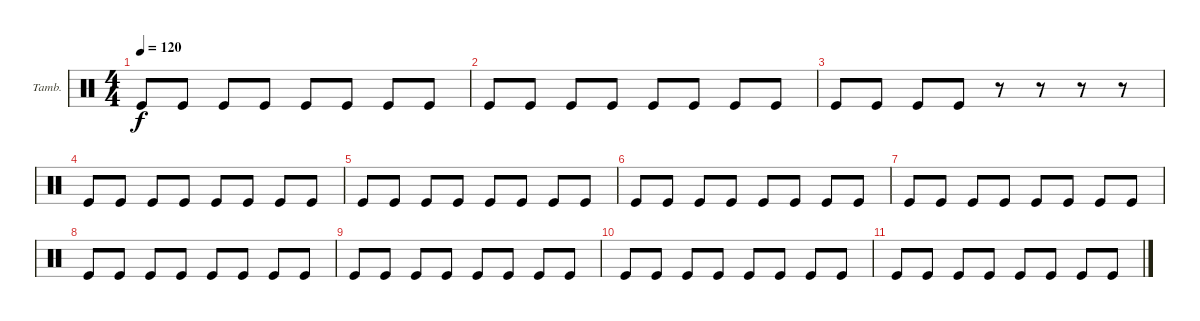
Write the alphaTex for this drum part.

\bracketExtendMode groupsimilarinstruments
\firstSystemTrackNameOrientation horizontal
\otherSystemsTrackNameOrientation horizontal
\track ("Tambourine" "Tamb.") {instrument percussion}
\staff {score}
\articulation defaults
\ts (4 4)
\tempo 120
\clef neutral
\scale
0.333333
\ks c "Kick (hit)".8{dy f} "Kick (hit)".8 "Kick (hit)".8 "Kick (hit)".8 "Kick (hit)".8 "Kick (hit)".8 "Kick (hit)".8 "Kick (hit)".8
|
\scale
0.333333 "Kick (hit)".8 "Kick (hit)".8 "Kick (hit)".8 "Kick (hit)".8 "Kick (hit)".8 "Kick (hit)".8 "Kick (hit)".8 "Kick (hit)".8 |
\scale
0.333333 "Kick (hit)".8 "Kick (hit)".8 "Kick (hit)".8 "Kick (hit)".8 r.8 r.8 r.8 r.8 |
\scale
0.333333 "Kick (hit)".8 "Kick (hit)".8 "Kick (hit)".8 "Kick (hit)".8 "Kick (hit)".8 "Kick (hit)".8 "Kick (hit)".8 "Kick (hit)".8 |
\scale
0.333333 "Kick (hit)".8 "Kick (hit)".8 "Kick (hit)".8 "Kick (hit)".8 "Kick (hit)".8 "Kick (hit)".8 "Kick (hit)".8 "Kick (hit)".8 |
\scale
0.333333 "Kick (hit)".8 "Kick (hit)".8 "Kick (hit)".8 "Kick (hit)".8 "Kick (hit)".8 "Kick (hit)".8 "Kick (hit)".8 "Kick (hit)".8 |
\scale
0.333333 "Kick (hit)".8 "Kick (hit)".8 "Kick (hit)".8 "Kick (hit)".8 "Kick (hit)".8 "Kick (hit)".8 "Kick (hit)".8 "Kick (hit)".8 |
\scale
0.333333 "Kick (hit)".8 "Kick (hit)".8 "Kick (hit)".8 "Kick (hit)".8 "Kick (hit)".8 "Kick (hit)".8 "Kick (hit)".8 "Kick (hit)".8 |
\scale
0.333333 "Kick (hit)".8 "Kick (hit)".8 "Kick (hit)".8 "Kick (hit)".8 "Kick (hit)".8 "Kick (hit)".8 "Kick (hit)".8 "Kick (hit)".8 |
\scale
0.333333 "Kick (hit)".8 "Kick (hit)".8 "Kick (hit)".8 "Kick (hit)".8 "Kick (hit)".8 "Kick (hit)".8 "Kick (hit)".8 "Kick (hit)".8 |
\scale
0.333333 "Kick (hit)".8 "Kick (hit)".8 "Kick (hit)".8 "Kick (hit)".8 "Kick (hit)".8 "Kick (hit)".8 "Kick (hit)".8 "Kick (hit)".8 |
\scale
0.333333 |
\scale
0.333333 |
\scale
0.333333 |
\scale
0.333333 |
\scale
0.333333
